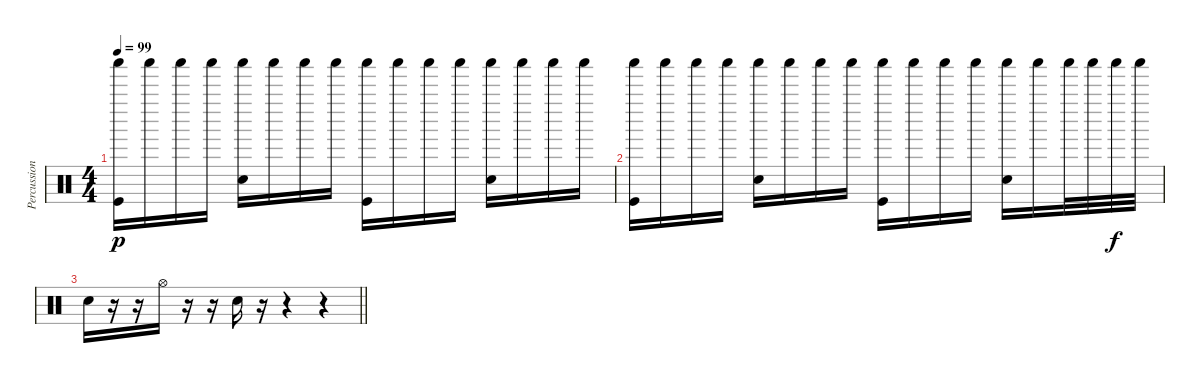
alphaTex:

\track ("Percussion" "Percussion") {instrument percussion}
\staff {score}
\articulation defaults
\ts (4 4)
\tempo 99
\clef neutral
\ks c
("Shaker (hit)" "Kick (hit)").16{dy p} "Shaker (hit)".16 "Shaker (hit)".16 "Shaker (hit)".16 ("Shaker (hit)" "Snare (hit) 2").16 "Shaker (hit)".16 "Shaker (hit)".16 "Shaker (hit)".16 ("Shaker (hit)" "Kick (hit)").16 "Shaker (hit)".16 "Shaker (hit)".16 "Shaker (hit)".16 ("Shaker (hit)" "Snare (hit) 2").16 "Shaker (hit)".16 "Shaker (hit)".16 "Shaker (hit)".16 |
("Shaker (hit)" "Kick (hit)").16 "Shaker (hit)".16 "Shaker (hit)".16 "Shaker (hit)".16 ("Shaker (hit)" "Snare (hit) 2").16 "Shaker (hit)".16 "Shaker (hit)".16 "Shaker (hit)".16 ("Shaker (hit)" "Kick (hit)").16 "Shaker (hit)".16 "Shaker (hit)".16 "Shaker (hit)".16 ("Shaker (hit)" "Snare (hit) 2").16 "Shaker (hit)".16 "Shaker (hit)".32 "Shaker (hit)".32 "Shaker (hit)".32{dy f} "Shaker (hit)".32 |
\barLineRight lightlight "Snare (hit) 2".16
r.16 r.16 "Hi-Hat (open)".16 r.16 r.16 "Snare (hit) 2".16 r.16 r.4 r.4
